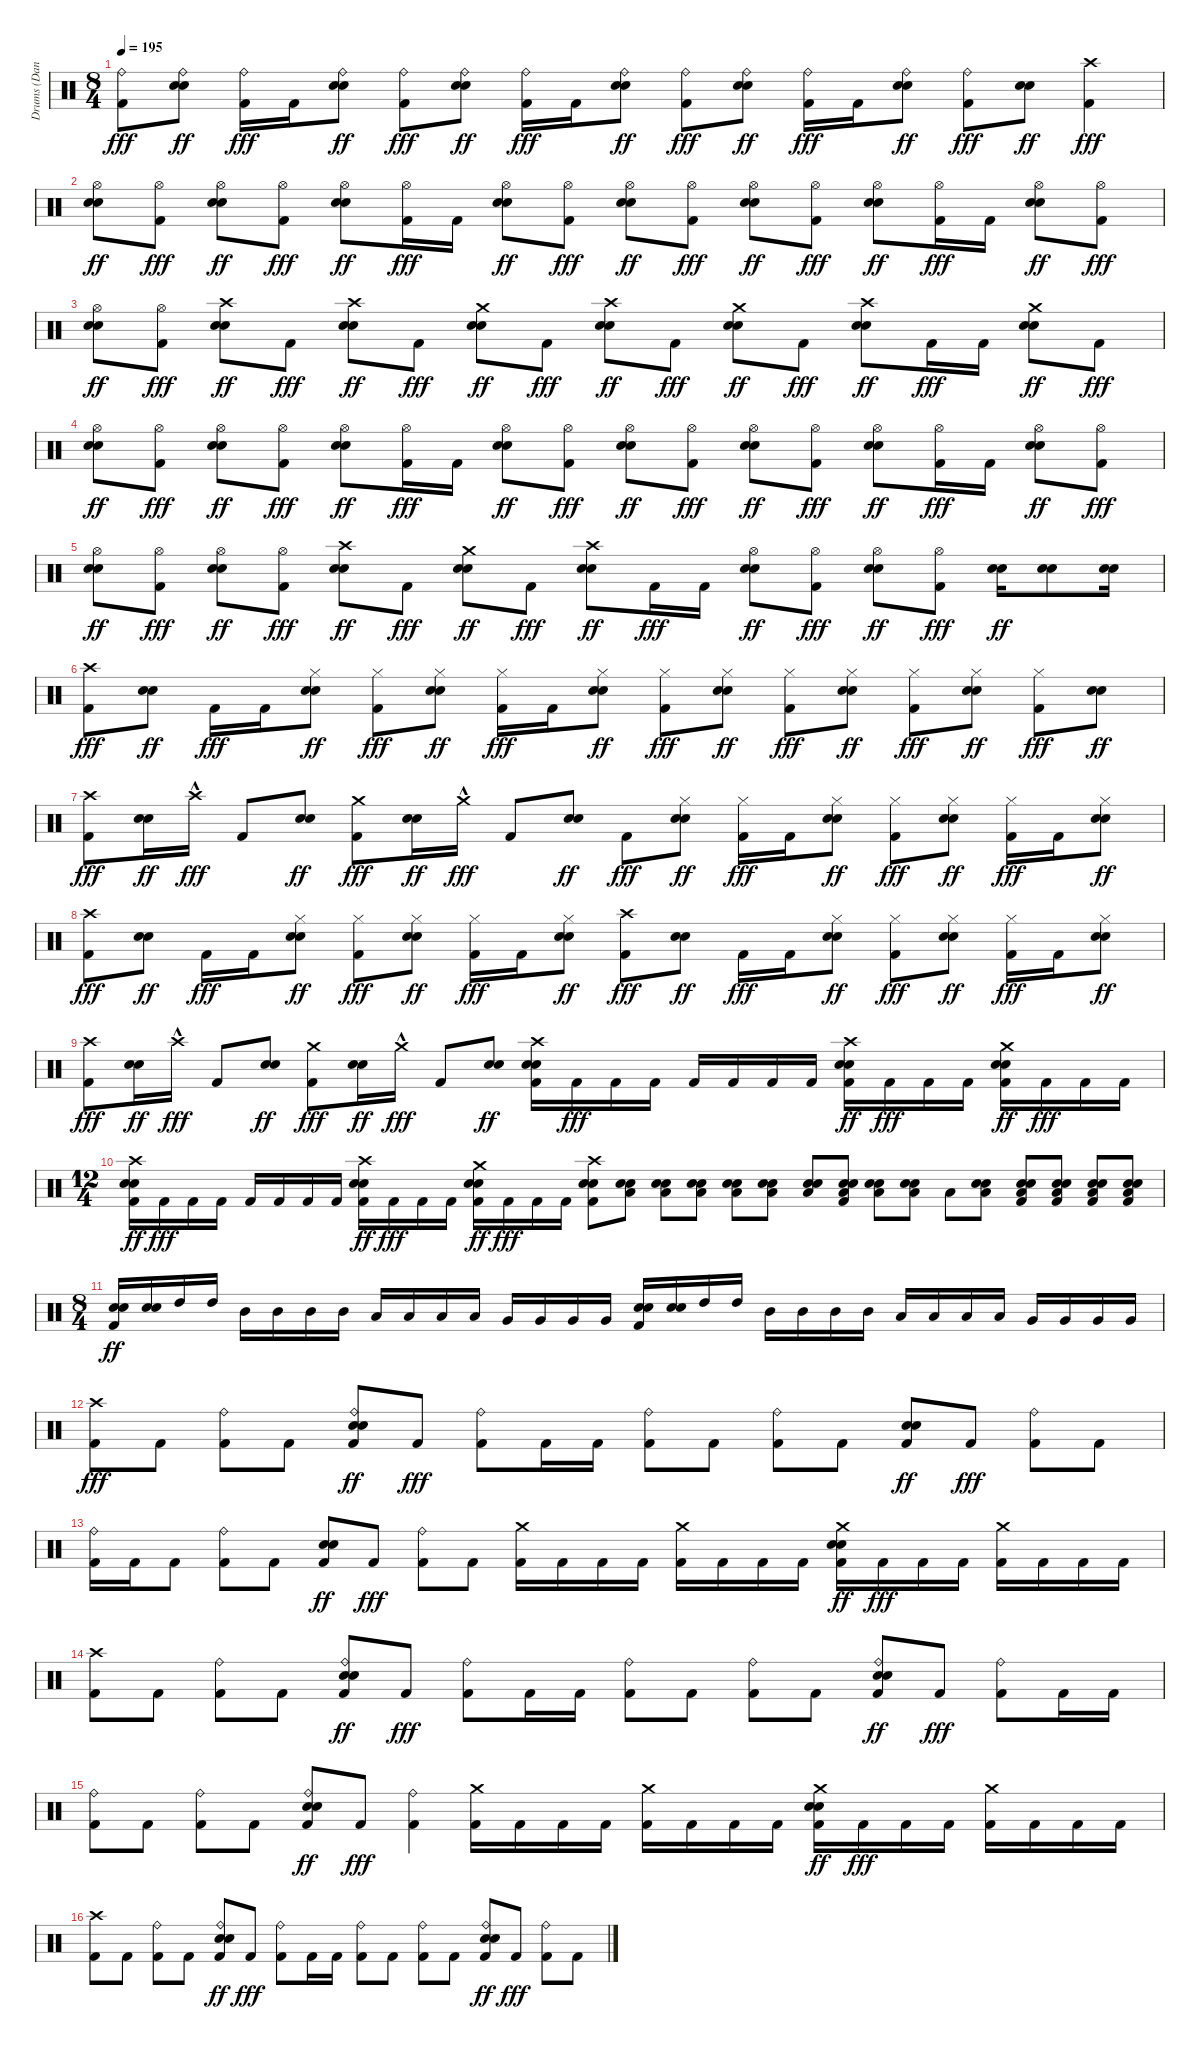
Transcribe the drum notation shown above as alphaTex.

\track ("Drums (Dan Zimmermann)" "Drums (Dan") {instrument percussion}
\staff {score}
\articulation defaults
\ts (8 4)
\tempo 195
\clef neutral
\ks c
("Kick (hit) 2" "Ride (bell)").8{dy fff} ("Metronome (bell)" "Ride (bell)" "Snare (hit) 2").8{dy ff} ("Kick (hit) 2" "Ride (bell)").16{dy fff} "Kick (hit) 2".16 ("Metronome (bell)" "Ride (bell)" "Snare (hit) 2").8{dy ff} ("Kick (hit) 2" "Ride (bell)").8{dy fff} ("Metronome (bell)" "Ride (bell)" "Snare (hit) 2").8{dy ff} ("Kick (hit) 2" "Ride (bell)").16{dy fff} "Kick (hit) 2".16 ("Metronome (bell)" "Ride (bell)" "Snare (hit) 2").8{dy ff} ("Kick (hit) 2" "Ride (bell)").8{dy fff} ("Metronome (bell)" "Ride (bell)" "Snare (hit) 2").8{dy ff} ("Kick (hit) 2" "Ride (bell)").16{dy fff} "Kick (hit) 2".16 ("Metronome (bell)" "Ride (bell)" "Snare (hit) 2").8{dy ff} ("Kick (hit) 2" "Ride (bell)").8{dy fff} ("Metronome (bell)" "Snare (hit) 2").8{dy ff} ("Kick (hit) 2" "Crash high (hit)").4{dy fff} |
("Metronome (bell)" "Hi-Hat (open)" "Snare (hit) 2").8{dy ff} ("Kick (hit) 2" "Hi-Hat (open)").8{dy fff} ("Metronome (bell)" "Hi-Hat (open)" "Snare (hit) 2").8{dy ff} ("Kick (hit) 2" "Hi-Hat (open)").8{dy fff} ("Metronome (bell)" "Hi-Hat (open)" "Snare (hit) 2").8{dy ff} ("Kick (hit) 2" "Hi-Hat (open)").16{dy fff} "Kick (hit) 2".16 ("Metronome (bell)" "Hi-Hat (open)" "Snare (hit) 2").8{dy ff} ("Kick (hit) 2" "Hi-Hat (open)").8{dy fff} ("Metronome (bell)" "Hi-Hat (open)" "Snare (hit) 2").8{dy ff} ("Kick (hit) 2" "Hi-Hat (open)").8{dy fff} ("Metronome (bell)" "Hi-Hat (open)" "Snare (hit) 2").8{dy ff} ("Kick (hit) 2" "Hi-Hat (open)").8{dy fff} ("Metronome (bell)" "Hi-Hat (open)" "Snare (hit) 2").8{dy ff} ("Kick (hit) 2" "Hi-Hat (open)").16{dy fff} "Kick (hit) 2".16 ("Metronome (bell)" "Hi-Hat (open)" "Snare (hit) 2").8{dy ff} ("Kick (hit) 2" "Hi-Hat (open)").8{dy fff} |
("Metronome (bell)" "Hi-Hat (open)" "Snare (hit) 2").8{dy ff} ("Kick (hit) 2" "Hi-Hat (open)").8{dy fff} ("Metronome (bell)" "Crash high (hit)" "Snare (hit) 2").8{dy ff} "Kick (hit) 2".8{dy fff} ("Metronome (bell)" "Crash high (hit)" "Snare (hit) 2").8{dy ff} "Kick (hit) 2".8{dy fff} ("Metronome (bell)" "Crash medium (hit)" "Snare (hit) 2").8{dy ff} "Kick (hit) 2".8{dy fff} ("Metronome (bell)" "Crash high (hit)" "Snare (hit) 2").8{dy ff} "Kick (hit) 2".8{dy fff} ("Metronome (bell)" "Crash medium (hit)" "Snare (hit) 2").8{dy ff} "Kick (hit) 2".8{dy fff} ("Metronome (bell)" "Crash high (hit)" "Snare (hit) 2").8{dy ff} "Kick (hit) 2".16{dy fff} "Kick (hit) 2".16 ("Metronome (bell)" "Crash medium (hit)" "Snare (hit) 2").8{dy ff} "Kick (hit) 2".8{dy fff} |
("Metronome (bell)" "Hi-Hat (open)" "Snare (hit) 2").8{dy ff} ("Kick (hit) 2" "Hi-Hat (open)").8{dy fff} ("Metronome (bell)" "Hi-Hat (open)" "Snare (hit) 2").8{dy ff} ("Kick (hit) 2" "Hi-Hat (open)").8{dy fff} ("Metronome (bell)" "Hi-Hat (open)" "Snare (hit) 2").8{dy ff} ("Kick (hit) 2" "Hi-Hat (open)").16{dy fff} "Kick (hit) 2".16 ("Metronome (bell)" "Hi-Hat (open)" "Snare (hit) 2").8{dy ff} ("Kick (hit) 2" "Hi-Hat (open)").8{dy fff} ("Metronome (bell)" "Hi-Hat (open)" "Snare (hit) 2").8{dy ff} ("Kick (hit) 2" "Hi-Hat (open)").8{dy fff} ("Metronome (bell)" "Hi-Hat (open)" "Snare (hit) 2").8{dy ff} ("Kick (hit) 2" "Hi-Hat (open)").8{dy fff} ("Metronome (bell)" "Hi-Hat (open)" "Snare (hit) 2").8{dy ff} ("Kick (hit) 2" "Hi-Hat (open)").16{dy fff} "Kick (hit) 2".16 ("Metronome (bell)" "Hi-Hat (open)" "Snare (hit) 2").8{dy ff} ("Kick (hit) 2" "Hi-Hat (open)").8{dy fff} |
("Metronome (bell)" "Hi-Hat (open)" "Snare (hit) 2").8{dy ff} ("Kick (hit) 2" "Hi-Hat (open)").8{dy fff} ("Metronome (bell)" "Hi-Hat (open)" "Snare (hit) 2").8{dy ff} ("Kick (hit) 2" "Hi-Hat (open)").8{dy fff} ("Metronome (bell)" "Crash high (hit)" "Snare (hit) 2").8{dy ff} "Kick (hit) 2".8{dy fff} ("Metronome (bell)" "Crash medium (hit)" "Snare (hit) 2").8{dy ff} "Kick (hit) 2".8{dy fff} ("Metronome (bell)" "Crash high (hit)" "Snare (hit) 2").8{dy ff} "Kick (hit) 2".16{dy fff} "Kick (hit) 2".16 ("Metronome (bell)" "Hi-Hat (open)" "Snare (hit) 2").8{dy ff} ("Kick (hit) 2" "Hi-Hat (open)").8{dy fff} ("Metronome (bell)" "Hi-Hat (open)" "Snare (hit) 2").8{dy ff} ("Kick (hit) 2" "Hi-Hat (open)").8{dy fff} ("Metronome (bell)" "Snare (hit) 2").16{dy ff} ("Metronome (bell)" "Snare (hit) 2").8 ("Metronome (bell)" "Snare (hit) 2").16 |
("Kick (hit) 2" "Crash high (hit)").8{dy fff} ("Metronome (bell)" "Snare (hit) 2").8{dy ff} "Kick (hit) 2".16{dy fff} "Kick (hit) 2".16 ("Metronome (bell)" "Hi-Hat (closed)" "Snare (hit) 2").8{dy ff} ("Kick (hit) 2" "Hi-Hat (closed)").8{dy fff} ("Metronome (bell)" "Hi-Hat (closed)" "Snare (hit) 2").8{dy ff} ("Kick (hit) 2" "Hi-Hat (closed)").16{dy fff} "Kick (hit) 2".16 ("Metronome (bell)" "Hi-Hat (closed)" "Snare (hit) 2").8{dy ff} ("Kick (hit) 2" "Hi-Hat (closed)").8{dy fff} ("Metronome (bell)" "Hi-Hat (closed)" "Snare (hit) 2").8{dy ff} ("Kick (hit) 2" "Hi-Hat (closed)").8{dy fff} ("Metronome (bell)" "Hi-Hat (closed)" "Snare (hit) 2").8{dy ff} ("Kick (hit) 2" "Hi-Hat (closed)").8{dy fff} ("Metronome (bell)" "Hi-Hat (closed)" "Snare (hit) 2").8{dy ff} ("Kick (hit) 2" "Hi-Hat (closed)").8{dy fff} ("Metronome (bell)" "Snare (hit) 2").8{dy ff} |
("Kick (hit) 2" "Crash high (hit)").8{dy fff} ("Metronome (bell)" "Snare (hit) 2").16{dy ff} "Crash high (hit)"{hac}.16{dy fff} "Kick (hit) 2".8 ("Metronome (bell)" "Snare (hit) 2").8{dy ff} ("Kick (hit) 2" "Crash medium (hit)").8{dy fff} ("Metronome (bell)" "Snare (hit) 2").16{dy ff} "Crash medium (hit)"{hac}.16{dy fff} "Kick (hit) 2".8 ("Metronome (bell)" "Snare (hit) 2").8{dy ff} "Kick (hit) 2".8{dy fff} ("Metronome (bell)" "Hi-Hat (closed)" "Snare (hit) 2").8{dy ff} ("Kick (hit) 2" "Hi-Hat (closed)").16{dy fff} "Kick (hit) 2".16 ("Metronome (bell)" "Hi-Hat (closed)" "Snare (hit) 2").8{dy ff} ("Kick (hit) 2" "Hi-Hat (closed)").8{dy fff} ("Metronome (bell)" "Hi-Hat (closed)" "Snare (hit) 2").8{dy ff} ("Kick (hit) 2" "Hi-Hat (closed)").16{dy fff} "Kick (hit) 2".16 ("Metronome (bell)" "Hi-Hat (closed)" "Snare (hit) 2").8{dy ff} |
("Kick (hit) 2" "Crash high (hit)").8{dy fff} ("Metronome (bell)" "Snare (hit) 2").8{dy ff} "Kick (hit) 2".16{dy fff} "Kick (hit) 2".16 ("Metronome (bell)" "Hi-Hat (closed)" "Snare (hit) 2").8{dy ff} ("Kick (hit) 2" "Hi-Hat (closed)").8{dy fff} ("Metronome (bell)" "Hi-Hat (closed)" "Snare (hit) 2").8{dy ff} ("Kick (hit) 2" "Hi-Hat (closed)").16{dy fff} "Kick (hit) 2".16 ("Metronome (bell)" "Hi-Hat (closed)" "Snare (hit) 2").8{dy ff} ("Kick (hit) 2" "Crash high (hit)").8{dy fff} ("Metronome (bell)" "Snare (hit) 2").8{dy ff} "Kick (hit) 2".16{dy fff} "Kick (hit) 2".16 ("Metronome (bell)" "Hi-Hat (closed)" "Snare (hit) 2").8{dy ff} ("Kick (hit) 2" "Hi-Hat (closed)").8{dy fff} ("Metronome (bell)" "Hi-Hat (closed)" "Snare (hit) 2").8{dy ff} ("Kick (hit) 2" "Hi-Hat (closed)").16{dy fff} "Kick (hit) 2".16 ("Metronome (bell)" "Hi-Hat (closed)" "Snare (hit) 2").8{dy ff} |
("Kick (hit) 2" "Crash high (hit)").8{dy fff} ("Metronome (bell)" "Snare (hit) 2").16{dy ff} "Crash high (hit)"{hac}.16{dy fff} "Kick (hit) 2".8 ("Metronome (bell)" "Snare (hit) 2").8{dy ff} ("Kick (hit) 2" "Crash medium (hit)").8{dy fff} ("Metronome (bell)" "Snare (hit) 2").16{dy ff} "Crash medium (hit)"{hac}.16{dy fff} "Kick (hit) 2".8 ("Metronome (bell)" "Snare (hit) 2").8{dy ff} ("Metronome (bell)" "Kick (hit) 2" "Crash high (hit)" "Snare (hit) 2").16 "Kick (hit) 2".16{dy fff} "Kick (hit) 2".16 "Kick (hit) 2".16 "Kick (hit) 2".16 "Kick (hit) 2".16 "Kick (hit) 2".16 "Kick (hit) 2".16 ("Metronome (bell)" "Kick (hit) 2" "Crash high (hit)" "Snare (hit) 2").16{dy ff} "Kick (hit) 2".16{dy fff} "Kick (hit) 2".16 "Kick (hit) 2".16 ("Metronome (bell)" "Kick (hit) 2" "Crash medium (hit)" "Snare (hit) 2").16{dy ff} "Kick (hit) 2".16{dy fff} "Kick (hit) 2".16 "Kick (hit) 2".16 |
\ts (12 4)
("Metronome (bell)" "Kick (hit) 2" "Crash high (hit)" "Snare (hit) 2").16{dy ff} "Kick (hit) 2".16{dy fff} "Kick (hit) 2".16 "Kick (hit) 2".16 "Kick (hit) 2".16 "Kick (hit) 2".16 "Kick (hit) 2".16 "Kick (hit) 2".16 ("Metronome (bell)" "Kick (hit) 2" "Crash high (hit)" "Snare (hit) 2").16{dy ff} "Kick (hit) 2".16{dy fff} "Kick (hit) 2".16 "Kick (hit) 2".16 ("Metronome (bell)" "Kick (hit) 2" "Crash medium (hit)" "Snare (hit) 2").16{dy ff} "Kick (hit) 2".16{dy fff} "Kick (hit) 2".16 "Kick (hit) 2".16 ("Metronome (bell)" "Crash high (hit)" "Kick (hit) 2" "Snare (hit) 2").8 ("Metronome (bell)" "Low Tom (hit)" "Snare (hit) 2").8 ("Metronome (bell)" "Low Tom (hit)" "Snare (hit) 2").8 ("Metronome (bell)" "Low Tom (hit)" "Snare (hit) 2").8 ("Metronome (bell)" "Low Tom (hit)" "Snare (hit) 2").8 ("Metronome (bell)" "Low Tom (hit)" "Snare (hit) 2").8 ("Metronome (bell)" "Low Tom (hit)" "Snare (hit) 2").8 ("Metronome (bell)" "Kick (hit) 2" "Low Tom (hit)" "Snare (hit) 2").8 ("Metronome (bell)" "Low Tom (hit)" "Snare (hit) 2").8 ("Metronome (bell)" "Low Tom (hit)" "Snare (hit) 2").8 "Low Tom (hit)".8 ("Metronome (bell)" "Low Tom (hit)" "Snare (hit) 2").8 ("Metronome (bell)" "Kick (hit) 2" "Low Tom (hit)" "Snare (hit) 2").8 ("Metronome (bell)" "Kick (hit) 2" "Low Tom (hit)" "Snare (hit) 2").8 ("Metronome (bell)" "Kick (hit) 2" "Low Tom (hit)" "Snare (hit) 2").8 ("Metronome (bell)" "Kick (hit) 2" "Low Tom (hit)" "Snare (hit) 2").8 |
\ts (8 4)
("Metronome (bell)" "Kick (hit) 2" "Snare (hit) 2").16{dy ff} ("Metronome (bell)" "Snare (hit) 2").16 "High Tom (hit)".16 "High Tom (hit)".16 "Mid Tom (hit)".16 "Mid Tom (hit)".16 "Mid Tom (hit)".16 "Mid Tom (hit)".16 "Low Tom (hit)".16 "Low Tom (hit)".16 "Low Tom (hit)".16 "Low Tom (hit)".16 "Very Low Tom (hit)".16 "Very Low Tom (hit)".16 "Very Low Tom (hit)".16 "Very Low Tom (hit)".16 ("Metronome (bell)" "Kick (hit) 2" "Snare (hit) 2").16 ("Metronome (bell)" "Snare (hit) 2").16 "High Tom (hit)".16 "High Tom (hit)".16 "Mid Tom (hit)".16 "Mid Tom (hit)".16 "Mid Tom (hit)".16 "Mid Tom (hit)".16 "Low Tom (hit)".16 "Low Tom (hit)".16 "Low Tom (hit)".16 "Low Tom (hit)".16 "Very Low Tom (hit)".16 "Very Low Tom (hit)".16 "Very Low Tom (hit)".16 "Very Low Tom (hit)".16 |
("Kick (hit) 2" "Crash high (hit)").8{dy fff} "Kick (hit) 2".8 ("Kick (hit) 2" "Ride (bell)").8 "Kick (hit) 2".8 ("Metronome (bell)" "Kick (hit) 2" "Ride (bell)" "Snare (hit) 2").8{dy ff} "Kick (hit) 2".8{dy fff} ("Kick (hit) 2" "Ride (bell)").8 "Kick (hit) 2".16 "Kick (hit) 2".16 ("Kick (hit) 2" "Ride (bell)").8 "Kick (hit) 2".8 ("Kick (hit) 2" "Ride (bell)").8 "Kick (hit) 2".8 ("Metronome (bell)" "Kick (hit) 2" "Snare (hit) 2").8{dy ff} "Kick (hit) 2".8{dy fff} ("Kick (hit) 2" "Ride (bell)").8 "Kick (hit) 2".8 |
("Kick (hit) 2" "Ride (bell)").16 "Kick (hit) 2".16 "Kick (hit) 2".8 ("Kick (hit) 2" "Ride (bell)").8 "Kick (hit) 2".8 ("Metronome (bell)" "Kick (hit) 2" "Snare (hit) 2").8{dy ff} "Kick (hit) 2".8{dy fff} ("Kick (hit) 2" "Ride (bell)").8 "Kick (hit) 2".8 ("Kick (hit) 2" "Crash medium (hit)").16 "Kick (hit) 2".16 "Kick (hit) 2".16 "Kick (hit) 2".16 ("Kick (hit) 2" "Crash medium (hit)").16 "Kick (hit) 2".16 "Kick (hit) 2".16 "Kick (hit) 2".16 ("Metronome (bell)" "Kick (hit) 2" "Crash medium (hit)" "Snare (hit) 2").16{dy ff} "Kick (hit) 2".16{dy fff} "Kick (hit) 2".16 "Kick (hit) 2".16 ("Kick (hit) 2" "Crash medium (hit)").16 "Kick (hit) 2".16 "Kick (hit) 2".16 "Kick (hit) 2".16 |
("Kick (hit) 2" "Crash high (hit)").8 "Kick (hit) 2".8 ("Kick (hit) 2" "Ride (bell)").8 "Kick (hit) 2".8 ("Metronome (bell)" "Kick (hit) 2" "Ride (bell)" "Snare (hit) 2").8{dy ff} "Kick (hit) 2".8{dy fff} ("Kick (hit) 2" "Ride (bell)").8 "Kick (hit) 2".16 "Kick (hit) 2".16 ("Kick (hit) 2" "Ride (bell)").8 "Kick (hit) 2".8 ("Kick (hit) 2" "Ride (bell)").8 "Kick (hit) 2".8 ("Metronome (bell)" "Kick (hit) 2" "Ride (bell)" "Snare (hit) 2").8{dy ff} "Kick (hit) 2".8{dy fff} ("Kick (hit) 2" "Ride (bell)").8 "Kick (hit) 2".16 "Kick (hit) 2".16 |
("Kick (hit) 2" "Ride (bell)").8 "Kick (hit) 2".8 ("Kick (hit) 2" "Ride (bell)").8 "Kick (hit) 2".8 ("Metronome (bell)" "Kick (hit) 2" "Ride (bell)" "Snare (hit) 2").8{dy ff} "Kick (hit) 2".8{dy fff} ("Kick (hit) 2" "Ride (bell)").4 ("Kick (hit) 2" "Crash medium (hit)").16 "Kick (hit) 2".16 "Kick (hit) 2".16 "Kick (hit) 2".16 ("Kick (hit) 2" "Crash medium (hit)").16 "Kick (hit) 2".16 "Kick (hit) 2".16 "Kick (hit) 2".16 ("Metronome (bell)" "Kick (hit) 2" "Crash medium (hit)" "Snare (hit) 2").16{dy ff} "Kick (hit) 2".16{dy fff} "Kick (hit) 2".16 "Kick (hit) 2".16 ("Kick (hit) 2" "Crash medium (hit)").16 "Kick (hit) 2".16 "Kick (hit) 2".16 "Kick (hit) 2".16 |
("Kick (hit) 2" "Crash high (hit)").8 "Kick (hit) 2".8 ("Kick (hit) 2" "Ride (bell)").8 "Kick (hit) 2".8 ("Metronome (bell)" "Kick (hit) 2" "Ride (bell)" "Snare (hit) 2").8{dy ff} "Kick (hit) 2".8{dy fff} ("Kick (hit) 2" "Ride (bell)").8 "Kick (hit) 2".16 "Kick (hit) 2".16 ("Kick (hit) 2" "Ride (bell)").8 "Kick (hit) 2".8 ("Kick (hit) 2" "Ride (bell)").8 "Kick (hit) 2".8 ("Metronome (bell)" "Kick (hit) 2" "Ride (bell)" "Snare (hit) 2").8{dy ff} "Kick (hit) 2".8{dy fff} ("Kick (hit) 2" "Ride (bell)").8 "Kick (hit) 2".8
